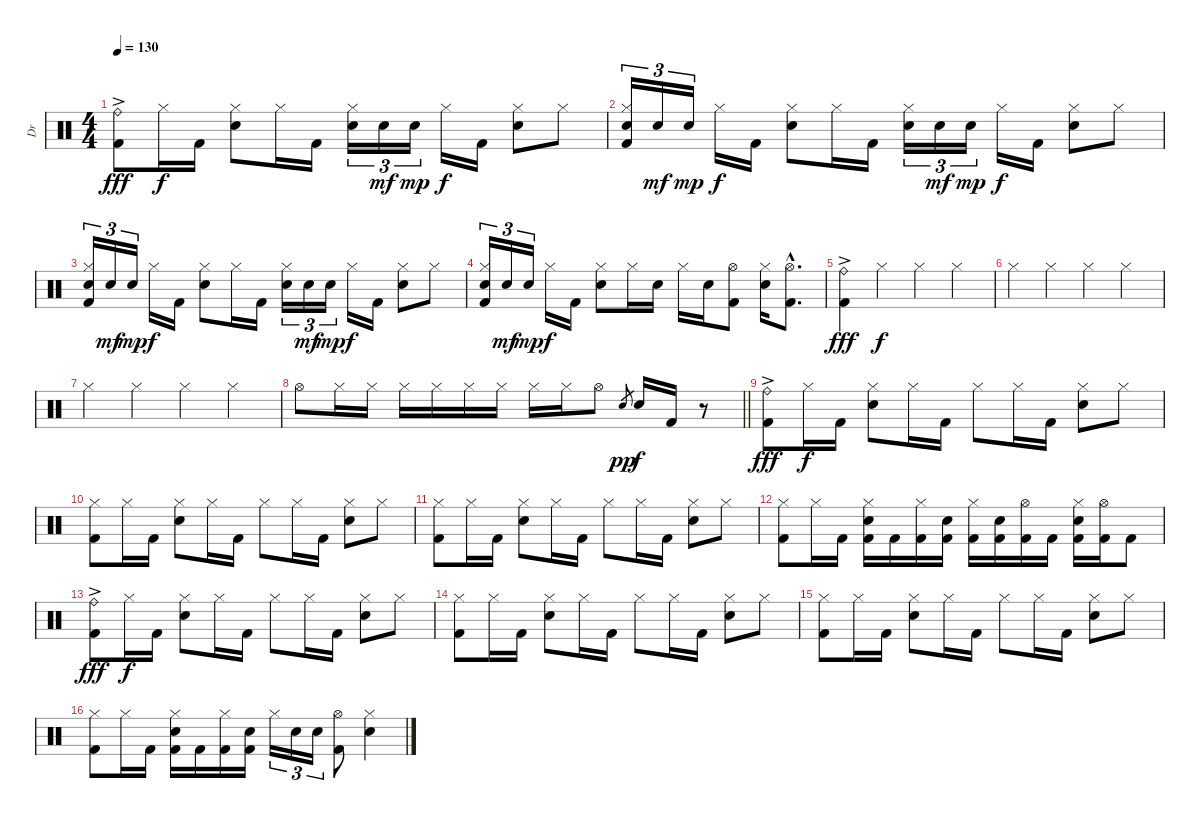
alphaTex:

\track ("Dr" "Dr") {instrument percussion}
\staff {score}
\articulation defaults
\ts (4 4)
\tempo 130
\clef neutral
\ks c
("Ride (bell)"{ac} "Kick (hit) 2"{ac}).8{dy fff} "Hi-Hat (closed)".16{dy f} "Kick (hit) 2".16 ("Hi-Hat (closed)" "Electric Snare (hit)").8 "Hi-Hat (closed)".16 "Kick (hit) 2".16 ("Hi-Hat (closed)" "Electric Snare (hit)").16{tu (3 2)} "Electric Snare (hit)".16{tu (3 2) dy mf} "Electric Snare (hit)".16{tu (3 2) dy mp} "Hi-Hat (closed)".16{dy f} "Kick (hit) 2".16 ("Hi-Hat (closed)" "Electric Snare (hit)").8 "Hi-Hat (closed)".8 |
("Hi-Hat (closed)" "Electric Snare (hit)" "Kick (hit) 2").16{tu (3 2)} "Electric Snare (hit)".16{tu (3 2) dy mf} "Electric Snare (hit)".16{tu (3 2) dy mp} "Hi-Hat (closed)".16{dy f} "Kick (hit) 2".16 ("Hi-Hat (closed)" "Electric Snare (hit)").8 "Hi-Hat (closed)".16 "Kick (hit) 2".16 ("Hi-Hat (closed)" "Electric Snare (hit)").16{tu (3 2)} "Electric Snare (hit)".16{tu (3 2) dy mf} "Electric Snare (hit)".16{tu (3 2) dy mp} "Hi-Hat (closed)".16{dy f} "Kick (hit) 2".16 ("Hi-Hat (closed)" "Electric Snare (hit)").8 "Hi-Hat (closed)".8 |
("Hi-Hat (closed)" "Electric Snare (hit)" "Kick (hit) 2").16{tu (3 2)} "Electric Snare (hit)".16{tu (3 2) dy mf} "Electric Snare (hit)".16{tu (3 2) dy mp} "Hi-Hat (closed)".16{dy f} "Kick (hit) 2".16 ("Hi-Hat (closed)" "Electric Snare (hit)").8 "Hi-Hat (closed)".16 "Kick (hit) 2".16 ("Hi-Hat (closed)" "Electric Snare (hit)").16{tu (3 2)} "Electric Snare (hit)".16{tu (3 2) dy mf} "Electric Snare (hit)".16{tu (3 2) dy mp} "Hi-Hat (closed)".16{dy f} "Kick (hit) 2".16 ("Hi-Hat (closed)" "Electric Snare (hit)").8 "Hi-Hat (closed)".8 |
("Hi-Hat (closed)" "Electric Snare (hit)" "Kick (hit) 2").16{tu (3 2)} "Electric Snare (hit)".16{tu (3 2) dy mf} "Electric Snare (hit)".16{tu (3 2) dy mp} "Hi-Hat (closed)".16{dy f} "Kick (hit) 2".16 ("Hi-Hat (closed)" "Electric Snare (hit)").8 "Hi-Hat (closed)".16 "Electric Snare (hit)".16 "Hi-Hat (closed)".16 "Electric Snare (hit)".16 ("Hi-Hat (open)" "Kick (hit) 2").8 ("Hi-Hat (closed)" "Electric Snare (hit)").16 ("Hi-Hat (open)"{hac} "Kick (hit) 2"{hac}).8{d} |
("Ride (bell)"{ac} "Kick (hit) 2"{ac}).4{dy fff} "Hi-Hat (closed)".4{dy f} "Hi-Hat (closed)".4 "Hi-Hat (closed)".4 |
"Hi-Hat (closed)".4 "Hi-Hat (closed)".4 "Hi-Hat (closed)".4 "Hi-Hat (closed)".4 |
"Hi-Hat (closed)".4 "Hi-Hat (closed)".4 "Hi-Hat (closed)".4 "Hi-Hat (closed)".4 |
\barLineRight lightlight "Hi-Hat (open)".8 "Hi-Hat (closed)".16 "Hi-Hat (closed)".16 "Hi-Hat (closed)".16 "Hi-Hat (closed)".16 "Hi-Hat (closed)".16 "Hi-Hat (closed)".16 "Hi-Hat (closed)".16 "Hi-Hat (closed)".16 "Hi-Hat (open)".8 "Electric Snare (hit)".8{gr dy pp} "Electric Snare (hit)".16{dy f} "Kick (hit) 2".16
r.8 |
("Ride (bell)"{ac} "Kick (hit) 2"{ac}).8{dy fff} "Hi-Hat (closed)".16{dy f} "Kick (hit) 2".16 ("Hi-Hat (closed)" "Electric Snare (hit)").8 "Hi-Hat (closed)".16 "Kick (hit) 2".16 "Hi-Hat (closed)".8 "Hi-Hat (closed)".16 "Kick (hit) 2".16 ("Hi-Hat (closed)" "Electric Snare (hit)").8 "Hi-Hat (closed)".8 |
("Hi-Hat (closed)" "Kick (hit) 2").8 "Hi-Hat (closed)".16 "Kick (hit) 2".16 ("Hi-Hat (closed)" "Electric Snare (hit)").8 "Hi-Hat (closed)".16 "Kick (hit) 2".16 "Hi-Hat (closed)".8 "Hi-Hat (closed)".16 "Kick (hit) 2".16 ("Hi-Hat (closed)" "Electric Snare (hit)").8 "Hi-Hat (closed)".8 |
("Hi-Hat (closed)" "Kick (hit) 2").8 "Hi-Hat (closed)".16 "Kick (hit) 2".16 ("Hi-Hat (closed)" "Electric Snare (hit)").8 "Hi-Hat (closed)".16 "Kick (hit) 2".16 "Hi-Hat (closed)".8 "Hi-Hat (closed)".16 "Kick (hit) 2".16 ("Hi-Hat (closed)" "Electric Snare (hit)").8 "Hi-Hat (closed)".8 |
("Hi-Hat (closed)" "Kick (hit) 2").8 "Hi-Hat (closed)".16 "Kick (hit) 2".16 ("Hi-Hat (closed)" "Electric Snare (hit)" "Kick (hit) 2").16 "Kick (hit) 2".16 ("Hi-Hat (closed)" "Kick (hit) 2").16 ("Electric Snare (hit)" "Kick (hit) 2").16 ("Hi-Hat (closed)" "Kick (hit) 2").16 ("Electric Snare (hit)" "Kick (hit) 2").16 ("Hi-Hat (open)" "Kick (hit) 2").16 "Kick (hit) 2".16 ("Hi-Hat (closed)" "Electric Snare (hit)" "Kick (hit) 2").16 ("Hi-Hat (open)" "Kick (hit) 2").16 "Kick (hit) 2".8 |
("Ride (bell)"{ac} "Kick (hit) 2"{ac}).8{dy fff} "Hi-Hat (closed)".16{dy f} "Kick (hit) 2".16 ("Hi-Hat (closed)" "Electric Snare (hit)").8 "Hi-Hat (closed)".16 "Kick (hit) 2".16 "Hi-Hat (closed)".8 "Hi-Hat (closed)".16 "Kick (hit) 2".16 ("Hi-Hat (closed)" "Electric Snare (hit)").8 "Hi-Hat (closed)".8 |
("Hi-Hat (closed)" "Kick (hit) 2").8 "Hi-Hat (closed)".16 "Kick (hit) 2".16 ("Hi-Hat (closed)" "Electric Snare (hit)").8 "Hi-Hat (closed)".16 "Kick (hit) 2".16 "Hi-Hat (closed)".8 "Hi-Hat (closed)".16 "Kick (hit) 2".16 ("Hi-Hat (closed)" "Electric Snare (hit)").8 "Hi-Hat (closed)".8 |
("Hi-Hat (closed)" "Kick (hit) 2").8 "Hi-Hat (closed)".16 "Kick (hit) 2".16 ("Hi-Hat (closed)" "Electric Snare (hit)").8 "Hi-Hat (closed)".16 "Kick (hit) 2".16 "Hi-Hat (closed)".8 "Hi-Hat (closed)".16 "Kick (hit) 2".16 ("Hi-Hat (closed)" "Electric Snare (hit)").8 "Hi-Hat (closed)".8 |
("Hi-Hat (closed)" "Kick (hit) 2").8 "Hi-Hat (closed)".16 "Kick (hit) 2".16 ("Hi-Hat (closed)" "Electric Snare (hit)" "Kick (hit) 2").16 "Kick (hit) 2".16 ("Hi-Hat (closed)" "Kick (hit) 2").16 ("Electric Snare (hit)" "Kick (hit) 2").16 "Hi-Hat (closed)".16{tu (3 2)} "Electric Snare (hit)".16{tu (3 2)} "Electric Snare (hit)".16{tu (3 2)} ("Hi-Hat (open)" "Kick (hit) 2").8 ("Hi-Hat (closed)" "Electric Snare (hit)").4
